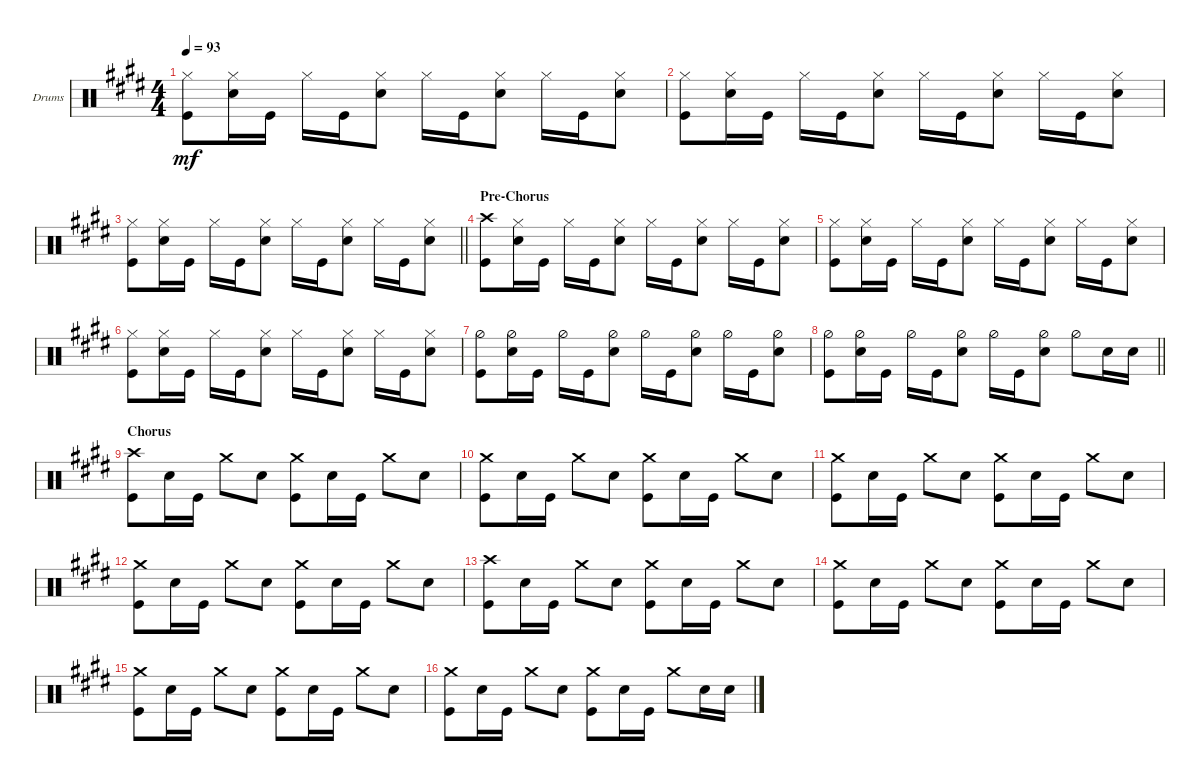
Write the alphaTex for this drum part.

\defaultSystemsLayout 4
\bracketExtendMode groupsimilarinstruments
\firstSystemTrackNameOrientation horizontal
\otherSystemsTrackNameOrientation horizontal
\track ("Drumkit" "Drums") {instrument percussion}
\staff {score}
\articulation defaults
\ts (4 4)
\tempo 93
\clef neutral
\ks e
("Kick (hit)" "Hi-Hat (closed)").8{dy mf} ("Snare (hit) 2" "Hi-Hat (closed)").16 "Kick (hit)".16 "Hi-Hat (closed)".16 "Kick (hit)".16 ("Snare (hit) 2" "Hi-Hat (closed)").8 "Hi-Hat (closed)".16 "Kick (hit)".16 ("Snare (hit) 2" "Hi-Hat (closed)").8 "Hi-Hat (closed)".16 "Kick (hit)".16 ("Snare (hit) 2" "Hi-Hat (closed)").8 |
("Kick (hit)" "Hi-Hat (closed)").8 ("Snare (hit) 2" "Hi-Hat (closed)").16 "Kick (hit)".16 "Hi-Hat (closed)".16 "Kick (hit)".16 ("Snare (hit) 2" "Hi-Hat (closed)").8 "Hi-Hat (closed)".16 "Kick (hit)".16 ("Snare (hit) 2" "Hi-Hat (closed)").8 "Hi-Hat (closed)".16 "Kick (hit)".16 ("Snare (hit) 2" "Hi-Hat (closed)").8 |
\barLineRight lightlight
("Kick (hit)" "Hi-Hat (closed)").8 ("Snare (hit) 2" "Hi-Hat (closed)").16 "Kick (hit)".16 "Hi-Hat (closed)".16 "Kick (hit)".16 ("Snare (hit) 2" "Hi-Hat (closed)").8 "Hi-Hat (closed)".16 "Kick (hit)".16 ("Snare (hit) 2" "Hi-Hat (closed)").8 "Hi-Hat (closed)".16 "Kick (hit)".16 ("Snare (hit) 2" "Hi-Hat (closed)").8 |
\section ("" "Pre-Chorus")
("Crash high (hit)" "Kick (hit)").8 ("Snare (hit) 2" "Hi-Hat (closed)").16 "Kick (hit)".16 "Hi-Hat (closed)".16 "Kick (hit)".16 ("Snare (hit) 2" "Hi-Hat (closed)").8 "Hi-Hat (closed)".16 "Kick (hit)".16 ("Snare (hit) 2" "Hi-Hat (closed)").8 "Hi-Hat (closed)".16 "Kick (hit)".16 ("Snare (hit) 2" "Hi-Hat (closed)").8 |
("Kick (hit)" "Hi-Hat (closed)").8 ("Snare (hit) 2" "Hi-Hat (closed)").16 "Kick (hit)".16 "Hi-Hat (closed)".16 "Kick (hit)".16 ("Snare (hit) 2" "Hi-Hat (closed)").8 "Hi-Hat (closed)".16 "Kick (hit)".16 ("Snare (hit) 2" "Hi-Hat (closed)").8 "Hi-Hat (closed)".16 "Kick (hit)".16 ("Snare (hit) 2" "Hi-Hat (closed)").8 |
("Kick (hit)" "Hi-Hat (closed)").8 ("Snare (hit) 2" "Hi-Hat (closed)").16 "Kick (hit)".16 "Hi-Hat (closed)".16 "Kick (hit)".16 ("Snare (hit) 2" "Hi-Hat (closed)").8 "Hi-Hat (closed)".16 "Kick (hit)".16 ("Snare (hit) 2" "Hi-Hat (closed)").8 "Hi-Hat (closed)".16 "Kick (hit)".16 ("Snare (hit) 2" "Hi-Hat (closed)").8 |
("Kick (hit)" "Hi-Hat (half)").8 ("Snare (hit) 2" "Hi-Hat (half)").16 "Kick (hit)".16 "Hi-Hat (half)".16 "Kick (hit)".16 ("Snare (hit) 2" "Hi-Hat (half)").8 "Hi-Hat (half)".16 "Kick (hit)".16 ("Snare (hit) 2" "Hi-Hat (half)").8 "Hi-Hat (half)".16 "Kick (hit)".16 ("Snare (hit) 2" "Hi-Hat (half)").8 |
\barLineRight lightlight
("Kick (hit)" "Hi-Hat (half)").8 ("Snare (hit) 2" "Hi-Hat (half)").16 "Kick (hit)".16 "Hi-Hat (half)".16 "Kick (hit)".16 ("Snare (hit) 2" "Hi-Hat (half)").8 "Hi-Hat (half)".16 "Kick (hit)".16 ("Snare (hit) 2" "Hi-Hat (half)").8 "Hi-Hat (half)".8 "Snare (hit) 2".16 "Snare (hit) 2".16 |
\section ("" "Chorus")
("Crash high (hit)" "Kick (hit)").8 "Snare (hit) 2".16 "Kick (hit)".16 "Crash medium (hit)".8 "Snare (hit) 2".8 ("Kick (hit)" "Crash medium (hit)").8 "Snare (hit) 2".16 "Kick (hit)".16 "Crash medium (hit)".8 "Snare (hit) 2".8 |
("Kick (hit)" "Crash medium (hit)").8 "Snare (hit) 2".16 "Kick (hit)".16 "Crash medium (hit)".8 "Snare (hit) 2".8 ("Kick (hit)" "Crash medium (hit)").8 "Snare (hit) 2".16 "Kick (hit)".16 "Crash medium (hit)".8 "Snare (hit) 2".8 |
("Kick (hit)" "Crash medium (hit)").8 "Snare (hit) 2".16 "Kick (hit)".16 "Crash medium (hit)".8 "Snare (hit) 2".8 ("Kick (hit)" "Crash medium (hit)").8 "Snare (hit) 2".16 "Kick (hit)".16 "Crash medium (hit)".8 "Snare (hit) 2".8 |
("Kick (hit)" "Crash medium (hit)").8 "Snare (hit) 2".16 "Kick (hit)".16 "Crash medium (hit)".8 "Snare (hit) 2".8 ("Kick (hit)" "Crash medium (hit)").8 "Snare (hit) 2".16 "Kick (hit)".16 "Crash medium (hit)".8 "Snare (hit) 2".8 |
("Crash high (hit)" "Kick (hit)").8 "Snare (hit) 2".16 "Kick (hit)".16 "Crash medium (hit)".8 "Snare (hit) 2".8 ("Kick (hit)" "Crash medium (hit)").8 "Snare (hit) 2".16 "Kick (hit)".16 "Crash medium (hit)".8 "Snare (hit) 2".8 |
("Kick (hit)" "Crash medium (hit)").8 "Snare (hit) 2".16 "Kick (hit)".16 "Crash medium (hit)".8 "Snare (hit) 2".8 ("Kick (hit)" "Crash medium (hit)").8 "Snare (hit) 2".16 "Kick (hit)".16 "Crash medium (hit)".8 "Snare (hit) 2".8 |
("Kick (hit)" "Crash medium (hit)").8 "Snare (hit) 2".16 "Kick (hit)".16 "Crash medium (hit)".8 "Snare (hit) 2".8 ("Kick (hit)" "Crash medium (hit)").8 "Snare (hit) 2".16 "Kick (hit)".16 "Crash medium (hit)".8 "Snare (hit) 2".8 |
("Kick (hit)" "Crash medium (hit)").8 "Snare (hit) 2".16 "Kick (hit)".16 "Crash medium (hit)".8 "Snare (hit) 2".8 ("Kick (hit)" "Crash medium (hit)").8 "Snare (hit) 2".16 "Kick (hit)".16 "Crash medium (hit)".8 "Snare (hit) 2".16 "Snare (hit) 2".16
